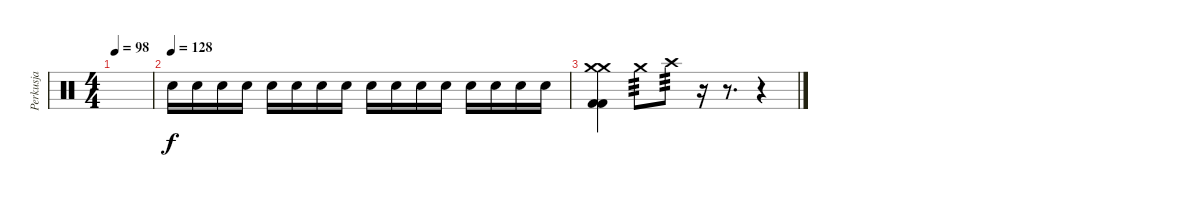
\track ("Perkusja" "Perkusja") {instrument percussion}
\staff {score}
\articulation defaults
\ts (4 4)
\tempo 98
\clef neutral
\ks c
|
\tempo (128)
"Snare (hit) 2".16 "Snare (hit) 2".16 "Snare (hit) 2".16 "Snare (hit) 2".16 "Snare (hit) 2".16 "Snare (hit) 2".16 "Snare (hit) 2".16 "Snare (hit) 2".16 "Snare (hit) 2".16 "Snare (hit) 2".16 "Snare (hit) 2".16 "Snare (hit) 2".16 "Snare (hit) 2".16 "Snare (hit) 2".16 "Snare (hit) 2".16 "Snare (hit) 2".16 |
("Crash medium (hit)" "Crash medium (hit)" "Kick (hit) 2" "Kick (hit) 2").4 "Crash medium (hit)".8{tp 3} "Crash high (hit)".8{tp 3} r.16 r.8{d} r.4
